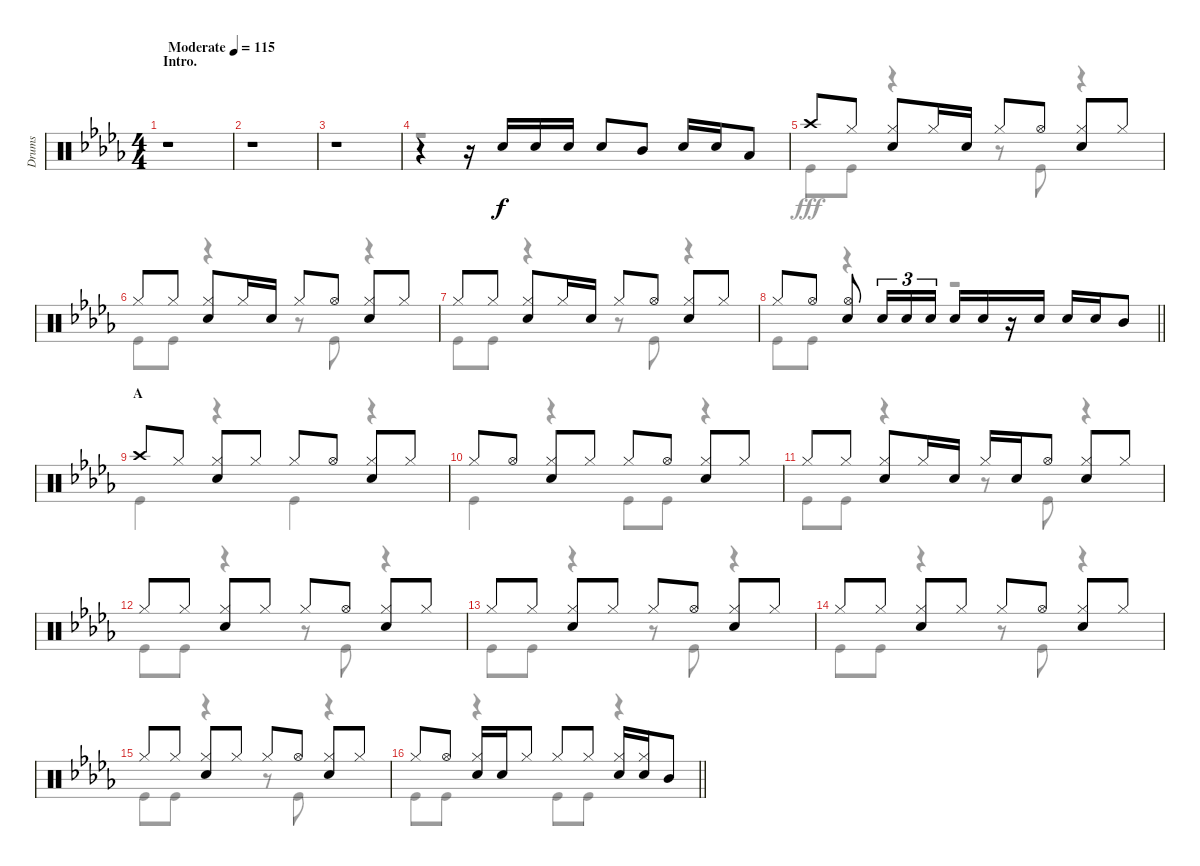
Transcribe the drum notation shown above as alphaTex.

\track ("Drums" "Drums") {instrument percussion}
\staff {score}
\articulation defaults
\voice
\ts (4 4)
\section ("" "Intro.")
\tempo (115 "Moderate")
\clef neutral
\ks db
r.1{dy f} |
r.1 |
r.1 |
r.4 r.16 "Snare (hit) 2".16 "Snare (hit) 2".16 "Snare (hit) 2".16 "Snare (hit) 2".8 "Mid Tom (hit)".8 "Snare (hit) 2".16 "Snare (hit) 2".16 "Low Tom (hit)".8 |
"Crash high (hit)".8 "Hi-Hat (closed)".8 ("Hi-Hat (closed)" "Snare (hit) 2").8 "Hi-Hat (closed)".16 "Snare (hit) 2".16 "Hi-Hat (closed)".8 "Hi-Hat (open)".8 ("Hi-Hat (closed)" "Snare (hit) 2").8 "Hi-Hat (closed)".8 |
"Hi-Hat (closed)".8 "Hi-Hat (closed)".8 ("Hi-Hat (closed)" "Snare (hit) 2").8 "Hi-Hat (closed)".16 "Snare (hit) 2".16 "Hi-Hat (closed)".8 "Hi-Hat (open)".8 ("Hi-Hat (closed)" "Snare (hit) 2").8 "Hi-Hat (closed)".8 |
"Hi-Hat (closed)".8 "Hi-Hat (closed)".8 ("Hi-Hat (closed)" "Snare (hit) 2").8 "Hi-Hat (closed)".16 "Snare (hit) 2".16 "Hi-Hat (closed)".8 "Hi-Hat (open)".8 ("Hi-Hat (closed)" "Snare (hit) 2").8 "Hi-Hat (closed)".8 |
\barLineRight lightlight "Hi-Hat (closed)".8 "Hi-Hat (open)".8
("Hi-Hat (open)" "Snare (hit) 2").8 "Snare (hit) 2".16{tu (3 2)} "Snare (hit) 2".16{tu (3 2)} "Snare (hit) 2".16{tu (3 2)} "Snare (hit) 2".16 "Snare (hit) 2".16 r.16 "Snare (hit) 2".16 "Snare (hit) 2".16 "Snare (hit) 2".16 "Mid Tom (hit)".8 |
\section ("" "A")
"Crash high (hit)".8 "Hi-Hat (closed)".8 ("Hi-Hat (closed)" "Snare (hit) 2").8 "Hi-Hat (closed)".8 "Hi-Hat (closed)".8 "Hi-Hat (open)".8 ("Hi-Hat (closed)" "Snare (hit) 2").8 "Hi-Hat (closed)".8 |
"Hi-Hat (closed)".8 "Hi-Hat (open)".8 ("Hi-Hat (closed)" "Snare (hit) 2").8 "Hi-Hat (closed)".8 "Hi-Hat (closed)".8 "Hi-Hat (open)".8 ("Hi-Hat (closed)" "Snare (hit) 2").8 "Hi-Hat (closed)".8 |
"Hi-Hat (closed)".8 "Hi-Hat (closed)".8 ("Hi-Hat (closed)" "Snare (hit) 2").8 "Hi-Hat (closed)".16 "Snare (hit) 2".16 "Hi-Hat (closed)".16 "Snare (hit) 2".16 "Hi-Hat (open)".8 ("Hi-Hat (closed)" "Snare (hit) 2").8 "Hi-Hat (closed)".8 |
"Hi-Hat (closed)".8 "Hi-Hat (closed)".8 ("Hi-Hat (closed)" "Snare (hit) 2").8 "Hi-Hat (closed)".8 "Hi-Hat (closed)".8 "Hi-Hat (open)".8 ("Hi-Hat (closed)" "Snare (hit) 2").8 "Hi-Hat (closed)".8 |
"Hi-Hat (closed)".8 "Hi-Hat (closed)".8 ("Hi-Hat (closed)" "Snare (hit) 2").8 "Hi-Hat (closed)".8 "Hi-Hat (closed)".8 "Hi-Hat (open)".8 ("Hi-Hat (closed)" "Snare (hit) 2").8 "Hi-Hat (closed)".8 |
"Hi-Hat (closed)".8 "Hi-Hat (closed)".8 ("Hi-Hat (closed)" "Snare (hit) 2").8 "Hi-Hat (closed)".8 "Hi-Hat (closed)".8 "Hi-Hat (open)".8 ("Hi-Hat (closed)" "Snare (hit) 2").8 "Hi-Hat (closed)".8 |
"Hi-Hat (closed)".8 "Hi-Hat (closed)".8 ("Hi-Hat (closed)" "Snare (hit) 2").8 "Hi-Hat (closed)".8 "Hi-Hat (closed)".8 "Hi-Hat (open)".8 ("Hi-Hat (closed)" "Snare (hit) 2").8 "Hi-Hat (closed)".8 |
\barLineRight lightlight "Hi-Hat (closed)".8 "Hi-Hat (open)".8
("Hi-Hat (closed)" "Snare (hit) 2").16 "Snare (hit) 2".16 "Hi-Hat (closed)".8 "Hi-Hat (closed)".8 "Hi-Hat (closed)".8 ("Hi-Hat (closed)" "Snare (hit) 2").16 ("Hi-Hat (closed)" "Snare (hit) 2").16 "Mid Tom (hit)".8
\voice
\clef neutral
\ottava regular
\simile none
\ks db
r.1{dy fff} |
r.1 |
r.1 |
r.1 |
"Kick (hit)".8 "Kick (hit)".8 r.4 r.8 "Kick (hit)".8 r.4 |
"Kick (hit)".8 "Kick (hit)".8 r.4 r.8 "Kick (hit)".8 r.4 |
"Kick (hit)".8 "Kick (hit)".8 r.4 r.8 "Kick (hit)".8 r.4 |
\barLineRight lightlight "Kick (hit)".8 "Kick (hit)".8
r.4 r.2 |
"Kick (hit)".4 r.4 "Kick (hit)".4 r.4 |
"Kick (hit)".4 r.4 "Kick (hit)".8 "Kick (hit)".8 r.4 |
"Kick (hit)".8 "Kick (hit)".8 r.4 r.8 "Kick (hit)".8 r.4 |
"Kick (hit)".8 "Kick (hit)".8 r.4 r.8 "Kick (hit)".8 r.4 |
"Kick (hit)".8 "Kick (hit)".8 r.4 r.8 "Kick (hit)".8 r.4 |
"Kick (hit)".8 "Kick (hit)".8 r.4 r.8 "Kick (hit)".8 r.4 |
"Kick (hit)".8 "Kick (hit)".8 r.4 r.8 "Kick (hit)".8 r.4 |
\barLineRight lightlight "Kick (hit)".8 "Kick (hit)".8
r.4 "Kick (hit)".8 "Kick (hit)".8 r.4
